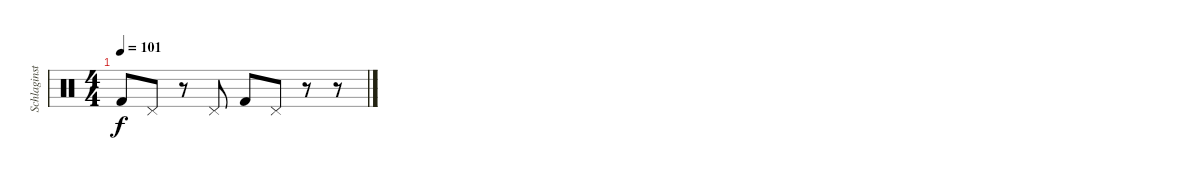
\track ("Schlaginstrumente - Auswahl" "Schlaginst") {instrument percussion}
\staff {score}
\articulation defaults
\ts (4 4)
\tempo 101
\clef neutral
\ks c "Kick (hit) 2".8{dy f} "Pedal Hi-Hat (hit)".8
r.8 "Pedal Hi-Hat (hit)".8 "Kick (hit) 2".8 "Pedal Hi-Hat (hit)".8 r.8 r.8
